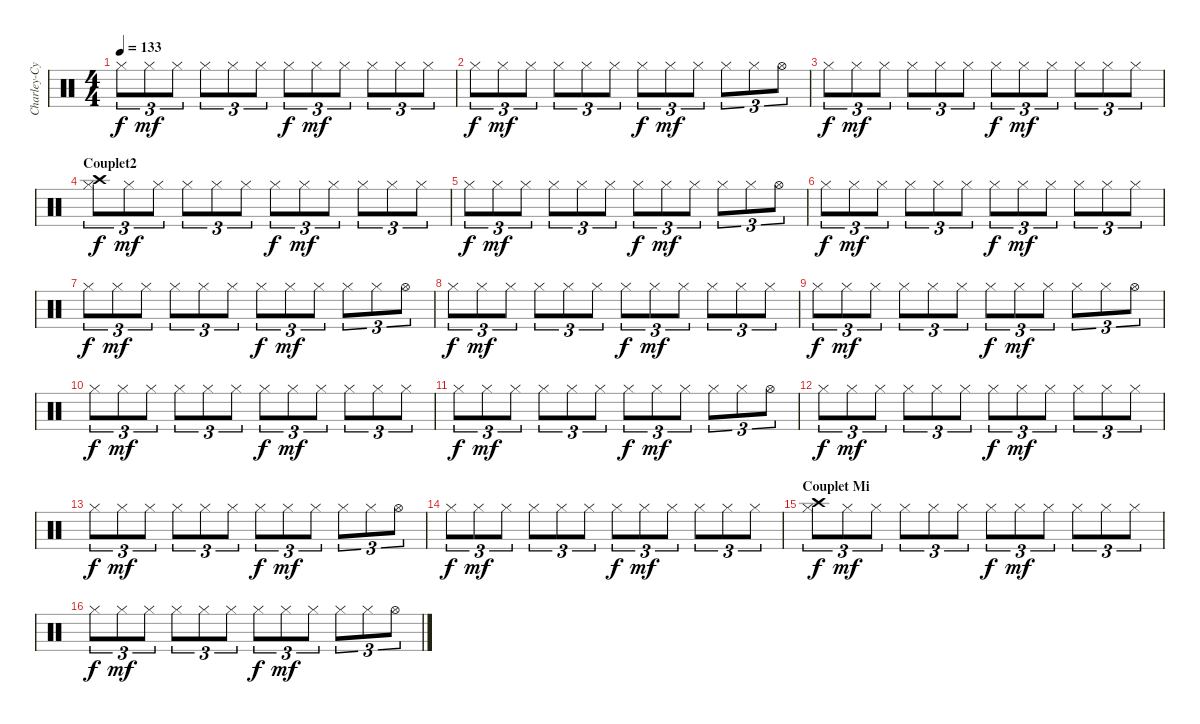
\track ("Charley-Cymbales" "Charley-Cy") {instrument percussion}
\staff {score}
\articulation defaults
\ts (4 4)
\tempo 133
\clef neutral
\ks c "Hi-Hat (closed)".8{tu (3 2) dy f} "Hi-Hat (closed)".8{tu (3 2) dy mf} "Hi-Hat (closed)".8{tu (3 2)} "Hi-Hat (closed)".8{tu (3 2)} "Hi-Hat (closed)".8{tu (3 2)} "Hi-Hat (closed)".8{tu (3 2)} "Hi-Hat (closed)".8{tu (3 2) dy f} "Hi-Hat (closed)".8{tu (3 2) dy mf} "Hi-Hat (closed)".8{tu (3 2)} "Hi-Hat (closed)".8{tu (3 2)} "Hi-Hat (closed)".8{tu (3 2)} "Hi-Hat (closed)".8{tu (3 2)}
|
"Hi-Hat (closed)".8{tu (3 2) dy f} "Hi-Hat (closed)".8{tu (3 2) dy mf} "Hi-Hat (closed)".8{tu (3 2)} "Hi-Hat (closed)".8{tu (3 2)} "Hi-Hat (closed)".8{tu (3 2)} "Hi-Hat (closed)".8{tu (3 2)} "Hi-Hat (closed)".8{tu (3 2) dy f} "Hi-Hat (closed)".8{tu (3 2) dy mf} "Hi-Hat (closed)".8{tu (3 2)} "Hi-Hat (closed)".8{tu (3 2)} "Hi-Hat (closed)".8{tu (3 2)} "Hi-Hat (open)".8{tu (3 2)} |
"Hi-Hat (closed)".8{tu (3 2) dy f} "Hi-Hat (closed)".8{tu (3 2) dy mf} "Hi-Hat (closed)".8{tu (3 2)} "Hi-Hat (closed)".8{tu (3 2)} "Hi-Hat (closed)".8{tu (3 2)} "Hi-Hat (closed)".8{tu (3 2)} "Hi-Hat (closed)".8{tu (3 2) dy f} "Hi-Hat (closed)".8{tu (3 2) dy mf} "Hi-Hat (closed)".8{tu (3 2)} "Hi-Hat (closed)".8{tu (3 2)} "Hi-Hat (closed)".8{tu (3 2)} "Hi-Hat (closed)".8{tu (3 2)} |
\section ("" "Couplet2")
("Crash high (hit)" "Hi-Hat (closed)").8{tu (3 2) dy f} "Hi-Hat (closed)".8{tu (3 2) dy mf} "Hi-Hat (closed)".8{tu (3 2)} "Hi-Hat (closed)".8{tu (3 2)} "Hi-Hat (closed)".8{tu (3 2)} "Hi-Hat (closed)".8{tu (3 2)} "Hi-Hat (closed)".8{tu (3 2) dy f} "Hi-Hat (closed)".8{tu (3 2) dy mf} "Hi-Hat (closed)".8{tu (3 2)} "Hi-Hat (closed)".8{tu (3 2)} "Hi-Hat (closed)".8{tu (3 2)} "Hi-Hat (closed)".8{tu (3 2)} |
"Hi-Hat (closed)".8{tu (3 2) dy f} "Hi-Hat (closed)".8{tu (3 2) dy mf} "Hi-Hat (closed)".8{tu (3 2)} "Hi-Hat (closed)".8{tu (3 2)} "Hi-Hat (closed)".8{tu (3 2)} "Hi-Hat (closed)".8{tu (3 2)} "Hi-Hat (closed)".8{tu (3 2) dy f} "Hi-Hat (closed)".8{tu (3 2) dy mf} "Hi-Hat (closed)".8{tu (3 2)} "Hi-Hat (closed)".8{tu (3 2)} "Hi-Hat (closed)".8{tu (3 2)} "Hi-Hat (open)".8{tu (3 2)} |
"Hi-Hat (closed)".8{tu (3 2) dy f} "Hi-Hat (closed)".8{tu (3 2) dy mf} "Hi-Hat (closed)".8{tu (3 2)} "Hi-Hat (closed)".8{tu (3 2)} "Hi-Hat (closed)".8{tu (3 2)} "Hi-Hat (closed)".8{tu (3 2)} "Hi-Hat (closed)".8{tu (3 2) dy f} "Hi-Hat (closed)".8{tu (3 2) dy mf} "Hi-Hat (closed)".8{tu (3 2)} "Hi-Hat (closed)".8{tu (3 2)} "Hi-Hat (closed)".8{tu (3 2)} "Hi-Hat (closed)".8{tu (3 2)} |
"Hi-Hat (closed)".8{tu (3 2) dy f} "Hi-Hat (closed)".8{tu (3 2) dy mf} "Hi-Hat (closed)".8{tu (3 2)} "Hi-Hat (closed)".8{tu (3 2)} "Hi-Hat (closed)".8{tu (3 2)} "Hi-Hat (closed)".8{tu (3 2)} "Hi-Hat (closed)".8{tu (3 2) dy f} "Hi-Hat (closed)".8{tu (3 2) dy mf} "Hi-Hat (closed)".8{tu (3 2)} "Hi-Hat (closed)".8{tu (3 2)} "Hi-Hat (closed)".8{tu (3 2)} "Hi-Hat (open)".8{tu (3 2)} |
"Hi-Hat (closed)".8{tu (3 2) dy f} "Hi-Hat (closed)".8{tu (3 2) dy mf} "Hi-Hat (closed)".8{tu (3 2)} "Hi-Hat (closed)".8{tu (3 2)} "Hi-Hat (closed)".8{tu (3 2)} "Hi-Hat (closed)".8{tu (3 2)} "Hi-Hat (closed)".8{tu (3 2) dy f} "Hi-Hat (closed)".8{tu (3 2) dy mf} "Hi-Hat (closed)".8{tu (3 2)} "Hi-Hat (closed)".8{tu (3 2)} "Hi-Hat (closed)".8{tu (3 2)} "Hi-Hat (closed)".8{tu (3 2)} |
"Hi-Hat (closed)".8{tu (3 2) dy f} "Hi-Hat (closed)".8{tu (3 2) dy mf} "Hi-Hat (closed)".8{tu (3 2)} "Hi-Hat (closed)".8{tu (3 2)} "Hi-Hat (closed)".8{tu (3 2)} "Hi-Hat (closed)".8{tu (3 2)} "Hi-Hat (closed)".8{tu (3 2) dy f} "Hi-Hat (closed)".8{tu (3 2) dy mf} "Hi-Hat (closed)".8{tu (3 2)} "Hi-Hat (closed)".8{tu (3 2)} "Hi-Hat (closed)".8{tu (3 2)} "Hi-Hat (open)".8{tu (3 2)} |
"Hi-Hat (closed)".8{tu (3 2) dy f} "Hi-Hat (closed)".8{tu (3 2) dy mf} "Hi-Hat (closed)".8{tu (3 2)} "Hi-Hat (closed)".8{tu (3 2)} "Hi-Hat (closed)".8{tu (3 2)} "Hi-Hat (closed)".8{tu (3 2)} "Hi-Hat (closed)".8{tu (3 2) dy f} "Hi-Hat (closed)".8{tu (3 2) dy mf} "Hi-Hat (closed)".8{tu (3 2)} "Hi-Hat (closed)".8{tu (3 2)} "Hi-Hat (closed)".8{tu (3 2)} "Hi-Hat (closed)".8{tu (3 2)} |
"Hi-Hat (closed)".8{tu (3 2) dy f} "Hi-Hat (closed)".8{tu (3 2) dy mf} "Hi-Hat (closed)".8{tu (3 2)} "Hi-Hat (closed)".8{tu (3 2)} "Hi-Hat (closed)".8{tu (3 2)} "Hi-Hat (closed)".8{tu (3 2)} "Hi-Hat (closed)".8{tu (3 2) dy f} "Hi-Hat (closed)".8{tu (3 2) dy mf} "Hi-Hat (closed)".8{tu (3 2)} "Hi-Hat (closed)".8{tu (3 2)} "Hi-Hat (closed)".8{tu (3 2)} "Hi-Hat (open)".8{tu (3 2)} |
"Hi-Hat (closed)".8{tu (3 2) dy f} "Hi-Hat (closed)".8{tu (3 2) dy mf} "Hi-Hat (closed)".8{tu (3 2)} "Hi-Hat (closed)".8{tu (3 2)} "Hi-Hat (closed)".8{tu (3 2)} "Hi-Hat (closed)".8{tu (3 2)} "Hi-Hat (closed)".8{tu (3 2) dy f} "Hi-Hat (closed)".8{tu (3 2) dy mf} "Hi-Hat (closed)".8{tu (3 2)} "Hi-Hat (closed)".8{tu (3 2)} "Hi-Hat (closed)".8{tu (3 2)} "Hi-Hat (closed)".8{tu (3 2)} |
"Hi-Hat (closed)".8{tu (3 2) dy f} "Hi-Hat (closed)".8{tu (3 2) dy mf} "Hi-Hat (closed)".8{tu (3 2)} "Hi-Hat (closed)".8{tu (3 2)} "Hi-Hat (closed)".8{tu (3 2)} "Hi-Hat (closed)".8{tu (3 2)} "Hi-Hat (closed)".8{tu (3 2) dy f} "Hi-Hat (closed)".8{tu (3 2) dy mf} "Hi-Hat (closed)".8{tu (3 2)} "Hi-Hat (closed)".8{tu (3 2)} "Hi-Hat (closed)".8{tu (3 2)} "Hi-Hat (open)".8{tu (3 2)} |
"Hi-Hat (closed)".8{tu (3 2) dy f} "Hi-Hat (closed)".8{tu (3 2) dy mf} "Hi-Hat (closed)".8{tu (3 2)} "Hi-Hat (closed)".8{tu (3 2)} "Hi-Hat (closed)".8{tu (3 2)} "Hi-Hat (closed)".8{tu (3 2)} "Hi-Hat (closed)".8{tu (3 2) dy f} "Hi-Hat (closed)".8{tu (3 2) dy mf} "Hi-Hat (closed)".8{tu (3 2)} "Hi-Hat (closed)".8{tu (3 2)} "Hi-Hat (closed)".8{tu (3 2)} "Hi-Hat (closed)".8{tu (3 2)} |
\section ("" "Couplet Mi")
("Crash high (hit)" "Hi-Hat (closed)").8{tu (3 2) dy f} "Hi-Hat (closed)".8{tu (3 2) dy mf} "Hi-Hat (closed)".8{tu (3 2)} "Hi-Hat (closed)".8{tu (3 2)} "Hi-Hat (closed)".8{tu (3 2)} "Hi-Hat (closed)".8{tu (3 2)} "Hi-Hat (closed)".8{tu (3 2) dy f} "Hi-Hat (closed)".8{tu (3 2) dy mf} "Hi-Hat (closed)".8{tu (3 2)} "Hi-Hat (closed)".8{tu (3 2)} "Hi-Hat (closed)".8{tu (3 2)} "Hi-Hat (closed)".8{tu (3 2)} |
"Hi-Hat (closed)".8{tu (3 2) dy f} "Hi-Hat (closed)".8{tu (3 2) dy mf} "Hi-Hat (closed)".8{tu (3 2)} "Hi-Hat (closed)".8{tu (3 2)} "Hi-Hat (closed)".8{tu (3 2)} "Hi-Hat (closed)".8{tu (3 2)} "Hi-Hat (closed)".8{tu (3 2) dy f} "Hi-Hat (closed)".8{tu (3 2) dy mf} "Hi-Hat (closed)".8{tu (3 2)} "Hi-Hat (closed)".8{tu (3 2)} "Hi-Hat (closed)".8{tu (3 2)} "Hi-Hat (open)".8{tu (3 2)}
